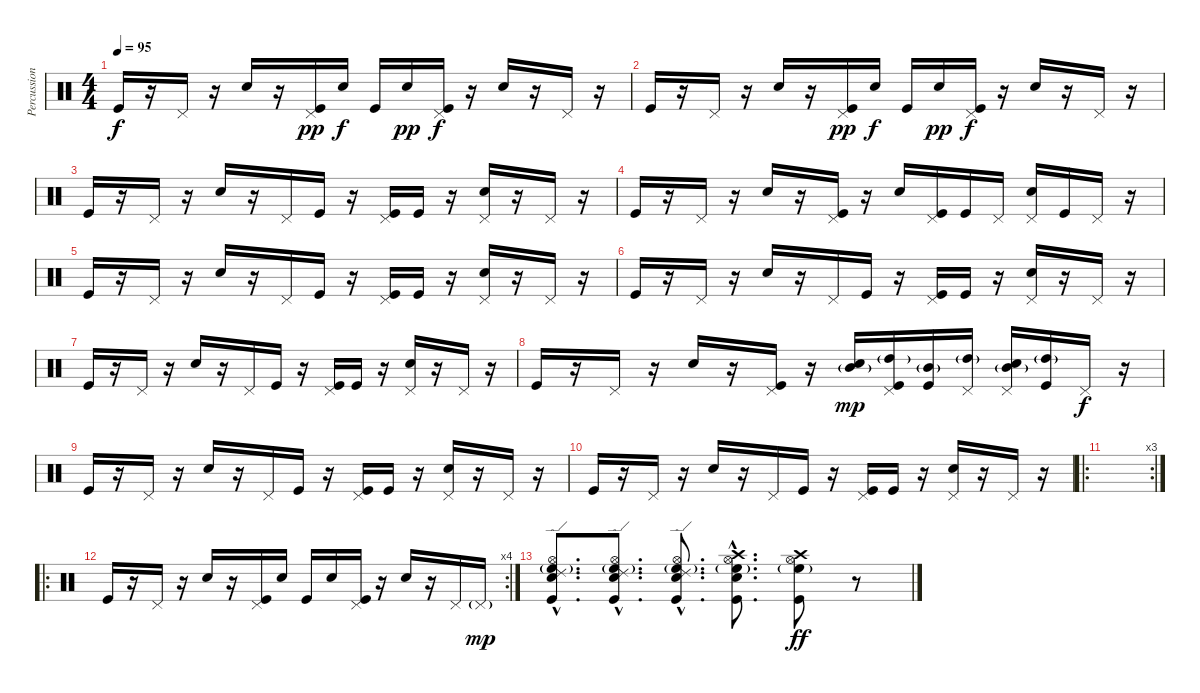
\track ("Percussioni" "Percussion") {instrument percussion}
\staff {score}
\articulation defaults
\ts (4 4)
\tempo 95
\clef neutral
\ks c "Kick (hit)".16{dy f}
r.16 "Pedal Hi-Hat (hit)".16 r.16 "Electric Snare (hit)".16 r.16 ("Kick (hit)" "Pedal Hi-Hat (hit)").16{dy pp} "Electric Snare (hit)".16{dy f} "Kick (hit)".16 "Snare (hit) 2".16{dy pp} ("Kick (hit)" "Pedal Hi-Hat (hit)").16{dy f} r.16 "Electric Snare (hit)".16 r.16 "Pedal Hi-Hat (hit)".16 r.16 |
"Kick (hit)".16 r.16 "Pedal Hi-Hat (hit)".16 r.16 "Electric Snare (hit)".16 r.16 ("Kick (hit)" "Pedal Hi-Hat (hit)").16{dy pp} "Electric Snare (hit)".16{dy f} "Kick (hit)".16 "Snare (hit) 2".16{dy pp} ("Kick (hit)" "Pedal Hi-Hat (hit)").16{dy f} r.16 "Electric Snare (hit)".16 r.16 "Pedal Hi-Hat (hit)".16 r.16 |
"Kick (hit)".16 r.16 "Pedal Hi-Hat (hit)".16 r.16 "Electric Snare (hit)".16 r.16 "Pedal Hi-Hat (hit)".16 "Kick (hit)".16 r.16 ("Kick (hit)" "Pedal Hi-Hat (hit)").16 "Kick (hit)".16 r.16 ("Electric Snare (hit)" "Pedal Hi-Hat (hit)").16 r.16 "Pedal Hi-Hat (hit)".16 r.16 |
"Kick (hit)".16 r.16 "Pedal Hi-Hat (hit)".16 r.16 "Electric Snare (hit)".16 r.16 ("Kick (hit)" "Pedal Hi-Hat (hit)").16 r.16 "Electric Snare (hit)".16 ("Kick (hit)" "Pedal Hi-Hat (hit)").16 "Kick (hit)".16 "Pedal Hi-Hat (hit)".16 ("Electric Snare (hit)" "Pedal Hi-Hat (hit)").16 "Kick (hit)".16 "Pedal Hi-Hat (hit)".16 r.16 |
"Kick (hit)".16 r.16 "Pedal Hi-Hat (hit)".16 r.16 "Electric Snare (hit)".16 r.16 "Pedal Hi-Hat (hit)".16 "Kick (hit)".16 r.16 ("Kick (hit)" "Pedal Hi-Hat (hit)").16 "Kick (hit)".16 r.16 ("Electric Snare (hit)" "Pedal Hi-Hat (hit)").16 r.16 "Pedal Hi-Hat (hit)".16 r.16 |
"Kick (hit)".16 r.16 "Pedal Hi-Hat (hit)".16 r.16 "Electric Snare (hit)".16 r.16 "Pedal Hi-Hat (hit)".16 "Kick (hit)".16 r.16 ("Kick (hit)" "Pedal Hi-Hat (hit)").16 "Kick (hit)".16 r.16 ("Electric Snare (hit)" "Pedal Hi-Hat (hit)").16 r.16 "Pedal Hi-Hat (hit)".16 r.16 |
"Kick (hit)".16 r.16 "Pedal Hi-Hat (hit)".16 r.16 "Electric Snare (hit)".16 r.16 "Pedal Hi-Hat (hit)".16 "Kick (hit)".16 r.16 ("Kick (hit)" "Pedal Hi-Hat (hit)").16 "Kick (hit)".16 r.16 ("Electric Snare (hit)" "Pedal Hi-Hat (hit)").16 r.16 "Pedal Hi-Hat (hit)".16 r.16 |
"Kick (hit)".16 r.16 "Pedal Hi-Hat (hit)".16 r.16 "Electric Snare (hit)".16 r.16 ("Kick (hit)" "Pedal Hi-Hat (hit)").16 r.16 ("Electric Snare (hit)" "Mid Tom (hit)"{g}).16{dy mp} ("Kick (hit)" "Pedal Hi-Hat (hit)" "High Tom (hit)"{g}).16 ("Kick (hit)" "Mid Tom (hit)"{g}).16 ("Pedal Hi-Hat (hit)" "High Tom (hit)"{g}).16 ("Electric Snare (hit)" "Pedal Hi-Hat (hit)" "Mid Tom (hit)"{g}).16 ("Kick (hit)" "High Tom (hit)"{g}).16 "Pedal Hi-Hat (hit)".16{dy f} r.16 |
"Kick (hit)".16 r.16 "Pedal Hi-Hat (hit)".16 r.16 "Electric Snare (hit)".16 r.16 "Pedal Hi-Hat (hit)".16 "Kick (hit)".16 r.16 ("Kick (hit)" "Pedal Hi-Hat (hit)").16 "Kick (hit)".16 r.16 ("Electric Snare (hit)" "Pedal Hi-Hat (hit)").16 r.16 "Pedal Hi-Hat (hit)".16 r.16 |
"Kick (hit)".16 r.16 "Pedal Hi-Hat (hit)".16 r.16 "Electric Snare (hit)".16 r.16 "Pedal Hi-Hat (hit)".16 "Kick (hit)".16 r.16 ("Kick (hit)" "Pedal Hi-Hat (hit)").16 "Kick (hit)".16 r.16 ("Electric Snare (hit)" "Pedal Hi-Hat (hit)").16 r.16 "Pedal Hi-Hat (hit)".16 r.16 |
\ro
\rc 3
|
\ro
\rc 4 "Kick (hit)".16
r.16 "Pedal Hi-Hat (hit)".16 r.16 "Electric Snare (hit)".16 r.16 ("Kick (hit)" "Pedal Hi-Hat (hit)").16 "Electric Snare (hit)".16 "Kick (hit)".16 "Snare (hit) 2".16 ("Kick (hit)" "Pedal Hi-Hat (hit)").16 r.16 "Electric Snare (hit)".16 r.16 "Pedal Hi-Hat (hit)".16 "Pedal Hi-Hat (hit)"{g}.16{dy mp} |
("Ride (edge) 2"{hac} "Hi-Hat (open)"{hac} "Electric Snare (hit)"{hac} "High Floor Tom (hit)"{g hac} "Kick (hit)"{hac}).8{d} ("Ride (edge) 2"{hac} "Hi-Hat (open)"{hac} "Electric Snare (hit)"{hac} "High Floor Tom (hit)"{g hac} "Kick (hit)"{hac}).8{d} ("Ride (edge) 2"{hac} "Hi-Hat (open)"{hac} "Electric Snare (hit)"{hac} "High Floor Tom (hit)"{g hac} "Kick (hit)"{hac}).8{d} ("Crash high (hit)"{hac} "Hi-Hat (open)"{hac} "Electric Snare (hit)"{hac} "High Floor Tom (hit)"{g hac} "Kick (hit)"{hac}).8{d} ("Crash high (hit)" "Hi-Hat (open)" "High Floor Tom (hit)"{g} "Kick (hit)").8{dy ff} r.8
